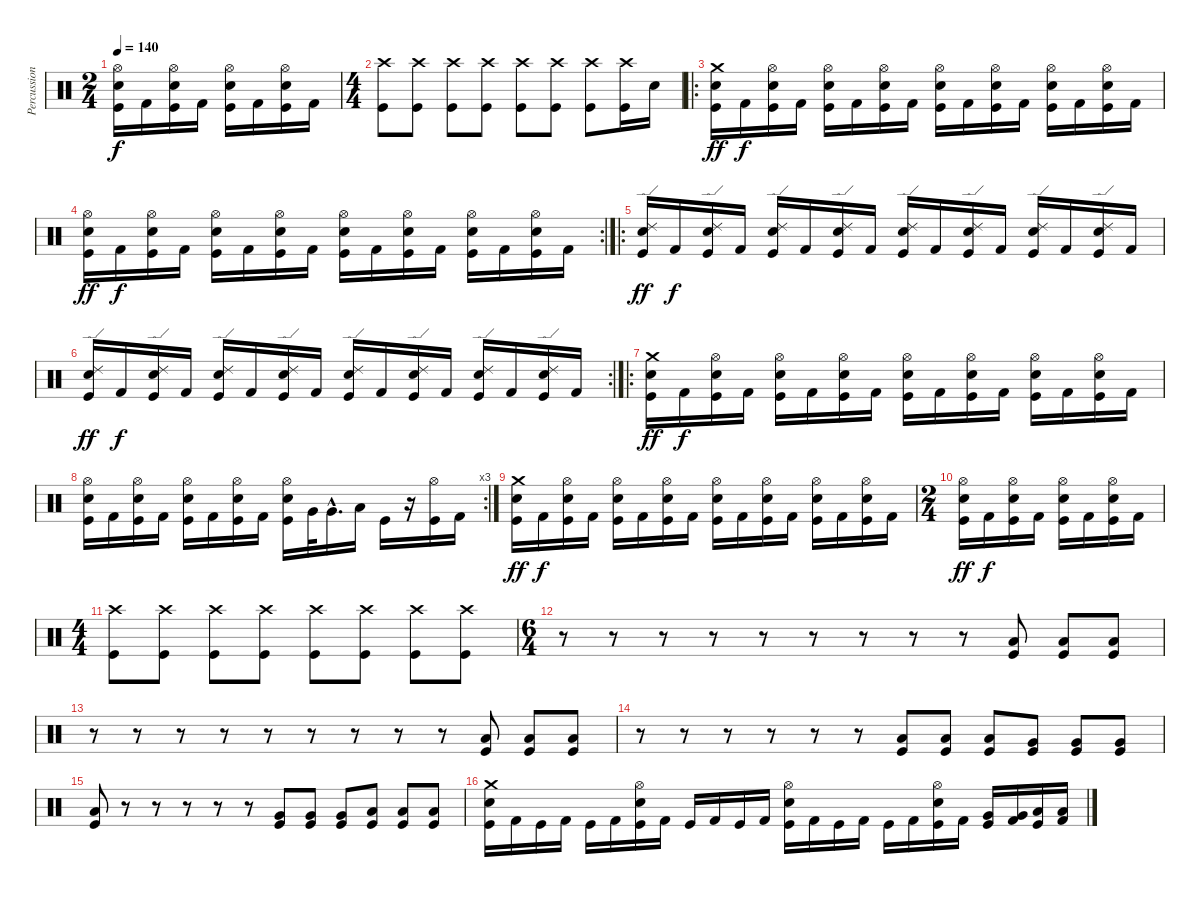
\track ("Percussion" "Percussion") {instrument percussion}
\staff {score}
\articulation defaults
\ts (2 4)
\tempo 140
\clef neutral
\ks c
("Hi-Hat (open)" "Electric Snare (hit)" "Kick (hit)").16{dy f} "Kick (hit) 2".16 ("Hi-Hat (open)" "Electric Snare (hit)" "Kick (hit)").16 "Kick (hit) 2".16 ("Hi-Hat (open)" "Electric Snare (hit)" "Kick (hit)").16 "Kick (hit) 2".16 ("Hi-Hat (open)" "Electric Snare (hit)" "Kick (hit)").16 "Kick (hit) 2".16 |
\ts (4 4)
("Crash high (hit)" "Kick (hit)").8 ("Crash high (hit)" "Kick (hit)").8 ("Crash high (hit)" "Kick (hit)").8 ("Crash high (hit)" "Kick (hit)").8 ("Crash high (hit)" "Kick (hit)").8 ("Crash high (hit)" "Kick (hit)").8 ("Crash high (hit)" "Kick (hit)").8 ("Crash high (hit)" "Kick (hit)").16 "Electric Snare (hit)".16 |
\ro
("Crash medium (hit)" "Electric Snare (hit)" "Kick (hit)").16{dy ff} "Kick (hit) 2".16{dy f} ("Hi-Hat (open)" "Electric Snare (hit)" "Kick (hit)").16 "Kick (hit) 2".16 ("Hi-Hat (open)" "Electric Snare (hit)" "Kick (hit)").16 "Kick (hit) 2".16 ("Hi-Hat (open)" "Electric Snare (hit)" "Kick (hit)").16 "Kick (hit) 2".16 ("Hi-Hat (open)" "Electric Snare (hit)" "Kick (hit)").16 "Kick (hit) 2".16 ("Hi-Hat (open)" "Electric Snare (hit)" "Kick (hit)").16 "Kick (hit) 2".16 ("Hi-Hat (open)" "Electric Snare (hit)" "Kick (hit)").16 "Kick (hit) 2".16 ("Hi-Hat (open)" "Electric Snare (hit)" "Kick (hit)").16 "Kick (hit) 2".16 |
\rc 2
("Hi-Hat (open)" "Electric Snare (hit)" "Kick (hit)").16{dy ff} "Kick (hit) 2".16{dy f} ("Hi-Hat (open)" "Electric Snare (hit)" "Kick (hit)").16 "Kick (hit) 2".16 ("Hi-Hat (open)" "Electric Snare (hit)" "Kick (hit)").16 "Kick (hit) 2".16 ("Hi-Hat (open)" "Electric Snare (hit)" "Kick (hit)").16 "Kick (hit) 2".16 ("Hi-Hat (open)" "Electric Snare (hit)" "Kick (hit)").16 "Kick (hit) 2".16 ("Hi-Hat (open)" "Electric Snare (hit)" "Kick (hit)").16 "Kick (hit) 2".16 ("Hi-Hat (open)" "Electric Snare (hit)" "Kick (hit)").16 "Kick (hit) 2".16 ("Hi-Hat (open)" "Electric Snare (hit)" "Kick (hit)").16 "Kick (hit) 2".16 |
\ro
("Ride (edge) 2" "Electric Snare (hit)" "Kick (hit)").16{dy ff} "Kick (hit) 2".16{dy f} ("Ride (edge) 2" "Electric Snare (hit)" "Kick (hit)").16 "Kick (hit) 2".16 ("Ride (edge) 2" "Electric Snare (hit)" "Kick (hit)").16 "Kick (hit) 2".16 ("Ride (edge) 2" "Electric Snare (hit)" "Kick (hit)").16 "Kick (hit) 2".16 ("Ride (edge) 2" "Electric Snare (hit)" "Kick (hit)").16 "Kick (hit) 2".16 ("Ride (edge) 2" "Electric Snare (hit)" "Kick (hit)").16 "Kick (hit) 2".16 ("Ride (edge) 2" "Electric Snare (hit)" "Kick (hit)").16 "Kick (hit) 2".16 ("Ride (edge) 2" "Electric Snare (hit)" "Kick (hit)").16 "Kick (hit) 2".16 |
\rc 2
("Ride (edge) 2" "Electric Snare (hit)" "Kick (hit)").16{dy ff} "Kick (hit) 2".16{dy f} ("Ride (edge) 2" "Electric Snare (hit)" "Kick (hit)").16 "Kick (hit) 2".16 ("Ride (edge) 2" "Electric Snare (hit)" "Kick (hit)").16 "Kick (hit) 2".16 ("Ride (edge) 2" "Electric Snare (hit)" "Kick (hit)").16 "Kick (hit) 2".16 ("Ride (edge) 2" "Electric Snare (hit)" "Kick (hit)").16 "Kick (hit) 2".16 ("Ride (edge) 2" "Electric Snare (hit)" "Kick (hit)").16 "Kick (hit) 2".16 ("Ride (edge) 2" "Electric Snare (hit)" "Kick (hit)").16 "Kick (hit) 2".16 ("Ride (edge) 2" "Electric Snare (hit)" "Kick (hit)").16 "Kick (hit) 2".16 |
\ro
("Crash medium (hit)" "Electric Snare (hit)" "Kick (hit)").16{dy ff} "Kick (hit) 2".16{dy f} ("Hi-Hat (open)" "Electric Snare (hit)" "Kick (hit)").16 "Kick (hit) 2".16 ("Hi-Hat (open)" "Electric Snare (hit)" "Kick (hit)").16 "Kick (hit) 2".16 ("Hi-Hat (open)" "Electric Snare (hit)" "Kick (hit)").16 "Kick (hit) 2".16 ("Hi-Hat (open)" "Electric Snare (hit)" "Kick (hit)").16 "Kick (hit) 2".16 ("Hi-Hat (open)" "Electric Snare (hit)" "Kick (hit)").16 "Kick (hit) 2".16 ("Hi-Hat (open)" "Electric Snare (hit)" "Kick (hit)").16 "Kick (hit) 2".16 ("Hi-Hat (open)" "Electric Snare (hit)" "Kick (hit)").16 "Kick (hit) 2".16 |
\rc 3
("Hi-Hat (open)" "Electric Snare (hit)" "Kick (hit)").16 "Kick (hit) 2".16 ("Hi-Hat (open)" "Electric Snare (hit)" "Kick (hit)").16 "Kick (hit) 2".16 ("Hi-Hat (open)" "Electric Snare (hit)" "Kick (hit)").16 "Kick (hit) 2".16 ("Hi-Hat (open)" "Electric Snare (hit)" "Kick (hit)").16 "Kick (hit) 2".16 ("Hi-Hat (open)" "Electric Snare (hit)" "Kick (hit)").16 "Very Low Tom (hit)".32 "Very Low Tom (hit)"{hac}.16{d} "Low Floor Tom (hit)".16 "Kick (hit)".16 r.16 ("Hi-Hat (open)" "Kick (hit)").16 "Kick (hit) 2".16 |
("Crash medium (hit)" "Electric Snare (hit)" "Kick (hit)").16{dy ff} "Kick (hit) 2".16{dy f} ("Hi-Hat (open)" "Electric Snare (hit)" "Kick (hit)").16 "Kick (hit) 2".16 ("Hi-Hat (open)" "Electric Snare (hit)" "Kick (hit)").16 "Kick (hit) 2".16 ("Hi-Hat (open)" "Electric Snare (hit)" "Kick (hit)").16 "Kick (hit) 2".16 ("Hi-Hat (open)" "Electric Snare (hit)" "Kick (hit)").16 "Kick (hit) 2".16 ("Hi-Hat (open)" "Electric Snare (hit)" "Kick (hit)").16 "Kick (hit) 2".16 ("Hi-Hat (open)" "Electric Snare (hit)" "Kick (hit)").16 "Kick (hit) 2".16 ("Hi-Hat (open)" "Electric Snare (hit)" "Kick (hit)").16 "Kick (hit) 2".16 |
\ts (2 4)
("Hi-Hat (open)" "Electric Snare (hit)" "Kick (hit)").16{dy ff} "Kick (hit) 2".16{dy f} ("Hi-Hat (open)" "Electric Snare (hit)" "Kick (hit)").16 "Kick (hit) 2".16 ("Hi-Hat (open)" "Electric Snare (hit)" "Kick (hit)").16 "Kick (hit) 2".16 ("Hi-Hat (open)" "Electric Snare (hit)" "Kick (hit)").16 "Kick (hit) 2".16 |
\ts (4 4)
("Crash high (hit)" "Kick (hit)").8 ("Crash high (hit)" "Kick (hit)").8 ("Crash high (hit)" "Kick (hit)").8 ("Crash high (hit)" "Kick (hit)").8 ("Crash high (hit)" "Kick (hit)").8 ("Crash high (hit)" "Kick (hit)").8 ("Crash high (hit)" "Kick (hit)").8 ("Crash high (hit)" "Kick (hit)").8 |
\ts (6 4)
r.8 r.8 r.8 r.8 r.8 r.8 r.8 r.8 r.8 ("Low Floor Tom (hit)" "Kick (hit)").8 ("Low Floor Tom (hit)" "Kick (hit)").8 ("Low Floor Tom (hit)" "Kick (hit)").8 |
r.8 r.8 r.8 r.8 r.8 r.8 r.8 r.8 r.8 ("Low Floor Tom (hit)" "Kick (hit)").8 ("Low Floor Tom (hit)" "Kick (hit)").8 ("Low Floor Tom (hit)" "Kick (hit)").8 |
r.8 r.8 r.8 r.8 r.8 r.8 ("Low Tom (hit)" "Kick (hit)").8 ("Low Tom (hit)" "Kick (hit)").8 ("Low Tom (hit)" "Kick (hit)").8 ("Very Low Tom (hit)" "Kick (hit)").8 ("Very Low Tom (hit)" "Kick (hit)").8 ("Very Low Tom (hit)" "Kick (hit)").8 |
("Low Floor Tom (hit)" "Kick (hit)").8 r.8 r.8 r.8 r.8 r.8 ("Very Low Tom (hit)" "Kick (hit)").8 ("Very Low Tom (hit)" "Kick (hit)").8 ("Very Low Tom (hit)" "Kick (hit)").8 ("Low Floor Tom (hit)" "Kick (hit)").8 ("Low Floor Tom (hit)" "Kick (hit)").8 ("Low Floor Tom (hit)" "Kick (hit)").8 |
("Crash medium (hit)" "Electric Snare (hit)" "Kick (hit)").16 "Kick (hit) 2".16 "Kick (hit)".16 "Kick (hit) 2".16 "Kick (hit)".16 "Kick (hit) 2".16 ("Hi-Hat (open)" "Electric Snare (hit)" "Kick (hit)").16 "Kick (hit) 2".16 "Kick (hit)".16 "Kick (hit) 2".16 "Kick (hit)".16 "Kick (hit) 2".16 ("Hi-Hat (open)" "Electric Snare (hit)" "Kick (hit)").16 "Kick (hit) 2".16 "Kick (hit)".16 "Kick (hit) 2".16 "Kick (hit)".16 "Kick (hit) 2".16 ("Hi-Hat (open)" "Electric Snare (hit)" "Kick (hit)").16 "Kick (hit) 2".16 ("Very Low Tom (hit)" "Kick (hit)").16 ("Very Low Tom (hit)" "Kick (hit) 2").16 ("Low Floor Tom (hit)" "Kick (hit)").16 ("Low Floor Tom (hit)" "Kick (hit) 2").16
